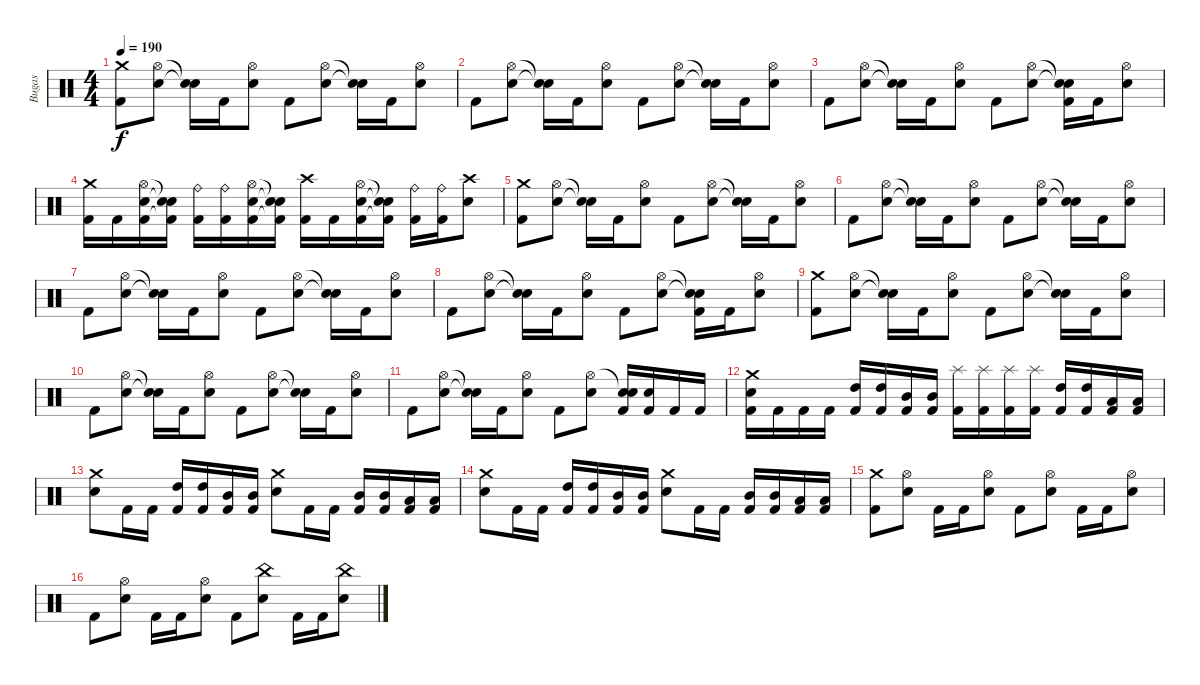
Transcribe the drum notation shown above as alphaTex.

\track ("Bugas" "Bugas") {instrument percussion}
\staff {score}
\articulation defaults
\ts (4 4)
\tempo 190
\clef neutral
\ks c
("Crash medium (hit)" "Kick (hit) 2").8{dy f} ("Hi-Hat (open)" "Electric Snare (hit)").8 ("Snare (hit)"{t} "Snare (hit)"{t}).16 "Kick (hit) 2".16 ("Hi-Hat (open)" "Electric Snare (hit)").8 "Kick (hit) 2".8 ("Hi-Hat (open)" "Electric Snare (hit)").8 ("Snare (hit)"{t} "Snare (hit)"{t}).16 "Kick (hit) 2".16 ("Hi-Hat (open)" "Electric Snare (hit)").8 |
"Kick (hit) 2".8 ("Hi-Hat (open)" "Electric Snare (hit)").8 ("Snare (hit)"{t} "Snare (hit)"{t}).16 "Kick (hit) 2".16 ("Hi-Hat (open)" "Electric Snare (hit)").8 "Kick (hit) 2".8 ("Hi-Hat (open)" "Electric Snare (hit)").8 ("Snare (hit)"{t} "Snare (hit)"{t}).16 "Kick (hit) 2".16 ("Hi-Hat (open)" "Electric Snare (hit)").8 |
"Kick (hit) 2".8 ("Hi-Hat (open)" "Electric Snare (hit)").8 ("Snare (hit)"{t} "Snare (hit)"{t}).16 "Kick (hit) 2".16 ("Hi-Hat (open)" "Electric Snare (hit)").8 "Kick (hit) 2".8 ("Hi-Hat (open)" "Electric Snare (hit)").8 ("Snare (hit)"{t} "Snare (hit)"{t} "Kick (hit) 2").16 "Kick (hit) 2".16 ("Hi-Hat (open)" "Electric Snare (hit)").8 |
("Crash medium (hit)" "Kick (hit) 2").16 "Kick (hit) 2".16 ("Hi-Hat (open)" "Electric Snare (hit)" "Kick (hit) 2").16 ("Snare (hit)"{t} "Snare (hit)"{t} "Kick (hit) 2"{t}).16 ("Ride (bell)" "Kick (hit) 2").16 ("Ride (bell)" "Kick (hit) 2").16 ("Hi-Hat (open)" "Electric Snare (hit)" "Kick (hit) 2").16 ("Snare (hit)"{t} "Snare (hit)"{t} "Kick (hit) 2"{t}).16 ("Crash high (hit)" "Kick (hit) 2").16 "Kick (hit) 2".16 ("Hi-Hat (open)" "Electric Snare (hit)" "Kick (hit) 2").16 ("Snare (hit)"{t} "Snare (hit)"{t} "Kick (hit) 2"{t}).16 ("Ride (bell)" "Kick (hit) 2").16 ("Ride (bell)" "Kick (hit) 2").16 ("Crash high (hit)" "Electric Snare (hit)").8 |
("Crash medium (hit)" "Kick (hit) 2").8 ("Hi-Hat (open)" "Electric Snare (hit)").8 ("Snare (hit)"{t} "Snare (hit)"{t}).16 "Kick (hit) 2".16 ("Hi-Hat (open)" "Electric Snare (hit)").8 "Kick (hit) 2".8 ("Hi-Hat (open)" "Electric Snare (hit)").8 ("Snare (hit)"{t} "Snare (hit)"{t}).16 "Kick (hit) 2".16 ("Hi-Hat (open)" "Electric Snare (hit)").8 |
"Kick (hit) 2".8 ("Hi-Hat (open)" "Electric Snare (hit)").8 ("Snare (hit)"{t} "Snare (hit)"{t}).16 "Kick (hit) 2".16 ("Hi-Hat (open)" "Electric Snare (hit)").8 "Kick (hit) 2".8 ("Hi-Hat (open)" "Electric Snare (hit)").8 ("Snare (hit)"{t} "Snare (hit)"{t}).16 "Kick (hit) 2".16 ("Hi-Hat (open)" "Electric Snare (hit)").8 |
"Kick (hit) 2".8 ("Hi-Hat (open)" "Electric Snare (hit)").8 ("Snare (hit)"{t} "Snare (hit)"{t}).16 "Kick (hit) 2".16 ("Hi-Hat (open)" "Electric Snare (hit)").8 "Kick (hit) 2".8 ("Hi-Hat (open)" "Electric Snare (hit)").8 ("Snare (hit)"{t} "Snare (hit)"{t}).16 "Kick (hit) 2".16 ("Hi-Hat (open)" "Electric Snare (hit)").8 |
"Kick (hit) 2".8 ("Hi-Hat (open)" "Electric Snare (hit)").8 ("Snare (hit)"{t} "Snare (hit)"{t}).16 "Kick (hit) 2".16 ("Hi-Hat (open)" "Electric Snare (hit)").8 "Kick (hit) 2".8 ("Hi-Hat (open)" "Electric Snare (hit)").8 ("Snare (hit)"{t} "Snare (hit)"{t} "Kick (hit) 2").16 "Kick (hit) 2".16 ("Hi-Hat (open)" "Electric Snare (hit)").8 |
("Crash medium (hit)" "Kick (hit) 2").8 ("Hi-Hat (open)" "Electric Snare (hit)").8 ("Snare (hit)"{t} "Snare (hit)"{t}).16 "Kick (hit) 2".16 ("Hi-Hat (open)" "Electric Snare (hit)").8 "Kick (hit) 2".8 ("Hi-Hat (open)" "Electric Snare (hit)").8 ("Snare (hit)"{t} "Snare (hit)"{t}).16 "Kick (hit) 2".16 ("Hi-Hat (open)" "Electric Snare (hit)").8 |
"Kick (hit) 2".8 ("Hi-Hat (open)" "Electric Snare (hit)").8 ("Snare (hit)"{t} "Snare (hit)"{t}).16 "Kick (hit) 2".16 ("Hi-Hat (open)" "Electric Snare (hit)").8 "Kick (hit) 2".8 ("Hi-Hat (open)" "Electric Snare (hit)").8 ("Snare (hit)"{t} "Snare (hit)"{t}).16 "Kick (hit) 2".16 ("Hi-Hat (open)" "Electric Snare (hit)").8 |
"Kick (hit) 2".8 ("Hi-Hat (open)" "Electric Snare (hit)").8 ("Snare (hit)"{t} "Snare (hit)"{t}).16 "Kick (hit) 2".16 ("Hi-Hat (open)" "Electric Snare (hit)").8 "Kick (hit) 2".8 ("Hi-Hat (open)" "Electric Snare (hit)").8 ("Snare (hit)"{t} "Electric Snare (hit)" "Kick (hit) 2").16 ("Electric Snare (hit)" "Kick (hit) 2").16 "Kick (hit) 2".16 "Kick (hit) 2".16 |
("Crash medium (hit)" "Electric Snare (hit)" "Kick (hit) 2").16 "Kick (hit) 2".16 "Kick (hit) 2".16 "Kick (hit) 2".16 ("High Tom (hit)" "Kick (hit) 2").16 ("High Tom (hit)" "Kick (hit) 2").16 ("Mid Tom (hit)" "Kick (hit) 2").16 ("Mid Tom (hit)" "Kick (hit) 2").16 ("Splash (hit)" "Kick (hit) 2").16 ("Splash (hit)" "Kick (hit) 2").16 ("Splash (hit)" "Kick (hit) 2").16 ("Splash (hit)" "Kick (hit) 2").16 ("High Tom (hit)" "Kick (hit) 2").16 ("High Tom (hit)" "Kick (hit) 2").16 ("Low Tom (hit)" "Kick (hit) 2").16 ("Low Tom (hit)" "Kick (hit) 2").16 |
("Crash medium (hit)" "Electric Snare (hit)").8 "Kick (hit) 2".16 "Kick (hit) 2".16 ("High Tom (hit)" "Kick (hit) 2").16 ("High Tom (hit)" "Kick (hit) 2").16 ("Mid Tom (hit)" "Kick (hit) 2").16 ("Mid Tom (hit)" "Kick (hit) 2").16 ("Crash medium (hit)" "Electric Snare (hit)").8 "Kick (hit) 2".16 "Kick (hit) 2".16 ("Mid Tom (hit)" "Kick (hit) 2").16 ("Mid Tom (hit)" "Kick (hit) 2").16 ("Low Tom (hit)" "Kick (hit) 2").16 ("Low Tom (hit)" "Kick (hit) 2").16 |
("Crash medium (hit)" "Electric Snare (hit)").8 "Kick (hit) 2".16 "Kick (hit) 2".16 ("High Tom (hit)" "Kick (hit) 2").16 ("High Tom (hit)" "Kick (hit) 2").16 ("Mid Tom (hit)" "Kick (hit) 2").16 ("Mid Tom (hit)" "Kick (hit) 2").16 ("Crash medium (hit)" "Electric Snare (hit)").8 "Kick (hit) 2".16 "Kick (hit) 2".16 ("Mid Tom (hit)" "Kick (hit) 2").16 ("Mid Tom (hit)" "Kick (hit) 2").16 ("Low Tom (hit)" "Kick (hit) 2").16 ("Low Tom (hit)" "Kick (hit) 2").16 |
("Crash medium (hit)" "Kick (hit) 2").8 ("Hi-Hat (open)" "Electric Snare (hit)").8 "Kick (hit) 2".16 "Kick (hit) 2".16 ("Hi-Hat (open)" "Electric Snare (hit)").8 "Kick (hit) 2".8 ("Hi-Hat (open)" "Electric Snare (hit)").8 "Kick (hit) 2".16 "Kick (hit) 2".16 ("Hi-Hat (open)" "Electric Snare (hit)").8 |
"Kick (hit) 2".8 ("Hi-Hat (open)" "Electric Snare (hit)").8 "Kick (hit) 2".16 "Kick (hit) 2".16 ("Hi-Hat (open)" "Electric Snare (hit)").8 "Kick (hit) 2".8 ("China (hit)" "Electric Snare (hit)").8 "Kick (hit) 2".16 "Kick (hit) 2".16 ("China (hit)" "Electric Snare (hit)").8
